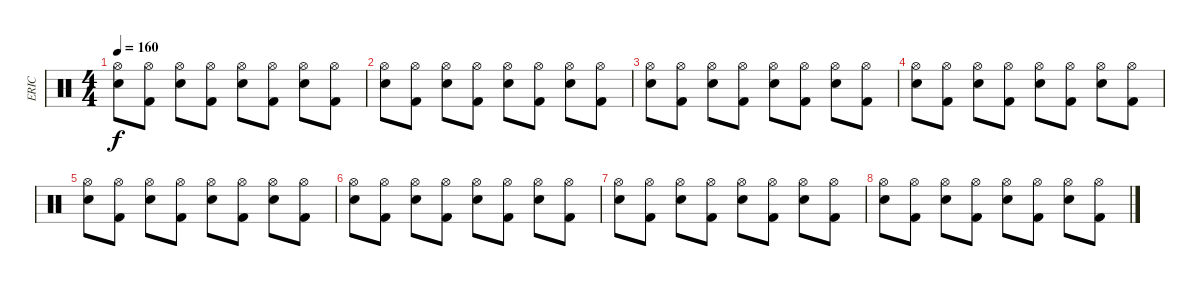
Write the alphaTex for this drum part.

\track ("ERIC" "ERIC") {instrument percussion}
\staff {score}
\articulation defaults
\ts (4 4)
\tempo 160
\clef neutral
\ks c
("Hi-Hat (open)" "Electric Snare (hit)").8{dy f} ("Hi-Hat (open)" "Kick (hit) 2").8 ("Hi-Hat (open)" "Electric Snare (hit)").8 ("Hi-Hat (open)" "Kick (hit) 2").8 ("Hi-Hat (open)" "Electric Snare (hit)").8 ("Hi-Hat (open)" "Kick (hit) 2").8 ("Hi-Hat (open)" "Electric Snare (hit)").8 ("Hi-Hat (open)" "Kick (hit) 2").8 |
("Hi-Hat (open)" "Electric Snare (hit)").8 ("Hi-Hat (open)" "Kick (hit) 2").8 ("Hi-Hat (open)" "Electric Snare (hit)").8 ("Hi-Hat (open)" "Kick (hit) 2").8 ("Hi-Hat (open)" "Electric Snare (hit)").8 ("Hi-Hat (open)" "Kick (hit) 2").8 ("Hi-Hat (open)" "Electric Snare (hit)").8 ("Hi-Hat (open)" "Kick (hit) 2").8 |
("Hi-Hat (open)" "Electric Snare (hit)").8 ("Hi-Hat (open)" "Kick (hit) 2").8 ("Hi-Hat (open)" "Electric Snare (hit)").8 ("Hi-Hat (open)" "Kick (hit) 2").8 ("Hi-Hat (open)" "Electric Snare (hit)").8 ("Hi-Hat (open)" "Kick (hit) 2").8 ("Hi-Hat (open)" "Electric Snare (hit)").8 ("Hi-Hat (open)" "Kick (hit) 2").8 |
("Hi-Hat (open)" "Electric Snare (hit)").8 ("Hi-Hat (open)" "Kick (hit) 2").8 ("Hi-Hat (open)" "Electric Snare (hit)").8 ("Hi-Hat (open)" "Kick (hit) 2").8 ("Hi-Hat (open)" "Electric Snare (hit)").8 ("Hi-Hat (open)" "Kick (hit) 2").8 ("Hi-Hat (open)" "Electric Snare (hit)").8 ("Hi-Hat (open)" "Kick (hit) 2").8 |
("Hi-Hat (open)" "Electric Snare (hit)").8 ("Hi-Hat (open)" "Kick (hit) 2").8 ("Hi-Hat (open)" "Electric Snare (hit)").8 ("Hi-Hat (open)" "Kick (hit) 2").8 ("Hi-Hat (open)" "Electric Snare (hit)").8 ("Hi-Hat (open)" "Kick (hit) 2").8 ("Hi-Hat (open)" "Electric Snare (hit)").8 ("Hi-Hat (open)" "Kick (hit) 2").8 |
("Hi-Hat (open)" "Electric Snare (hit)").8 ("Hi-Hat (open)" "Kick (hit) 2").8 ("Hi-Hat (open)" "Electric Snare (hit)").8 ("Hi-Hat (open)" "Kick (hit) 2").8 ("Hi-Hat (open)" "Electric Snare (hit)").8 ("Hi-Hat (open)" "Kick (hit) 2").8 ("Hi-Hat (open)" "Electric Snare (hit)").8 ("Hi-Hat (open)" "Kick (hit) 2").8 |
("Hi-Hat (open)" "Electric Snare (hit)").8 ("Hi-Hat (open)" "Kick (hit) 2").8 ("Hi-Hat (open)" "Electric Snare (hit)").8 ("Hi-Hat (open)" "Kick (hit) 2").8 ("Hi-Hat (open)" "Electric Snare (hit)").8 ("Hi-Hat (open)" "Kick (hit) 2").8 ("Hi-Hat (open)" "Electric Snare (hit)").8 ("Hi-Hat (open)" "Kick (hit) 2").8 |
("Hi-Hat (open)" "Electric Snare (hit)").8 ("Hi-Hat (open)" "Kick (hit) 2").8 ("Hi-Hat (open)" "Electric Snare (hit)").8 ("Hi-Hat (open)" "Kick (hit) 2").8 ("Hi-Hat (open)" "Electric Snare (hit)").8 ("Hi-Hat (open)" "Kick (hit) 2").8 ("Hi-Hat (open)" "Electric Snare (hit)").8 ("Hi-Hat (open)" "Kick (hit) 2").8
